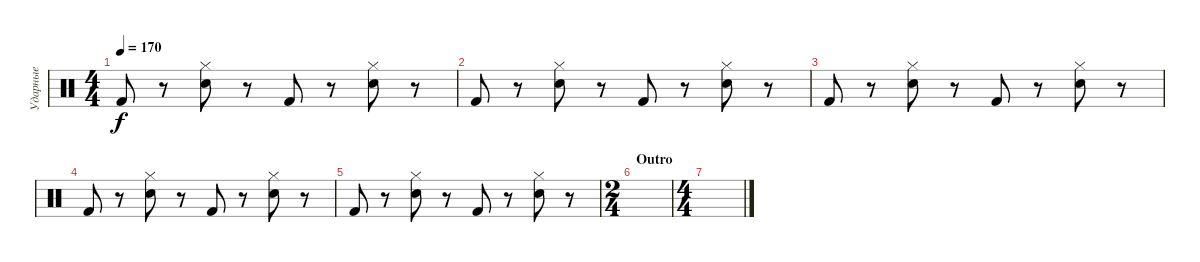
\track ("Ударные" "Ударные") {instrument percussion}
\staff {score}
\articulation defaults
\ts (4 4)
\tempo 170
\clef neutral
\ks c "Kick (hit) 2".8{dy f}
r.8 ("Hi-Hat (closed)" "Electric Snare (hit)").8 r.8 "Kick (hit) 2".8 r.8 ("Hi-Hat (closed)" "Electric Snare (hit)").8 r.8 |
"Kick (hit) 2".8 r.8 ("Hi-Hat (closed)" "Electric Snare (hit)").8 r.8 "Kick (hit) 2".8 r.8 ("Hi-Hat (closed)" "Electric Snare (hit)").8 r.8 |
"Kick (hit) 2".8 r.8 ("Hi-Hat (closed)" "Electric Snare (hit)").8 r.8 "Kick (hit) 2".8 r.8 ("Hi-Hat (closed)" "Electric Snare (hit)").8 r.8 |
"Kick (hit) 2".8 r.8 ("Hi-Hat (closed)" "Electric Snare (hit)").8 r.8 "Kick (hit) 2".8 r.8 ("Hi-Hat (closed)" "Electric Snare (hit)").8 r.8 |
"Kick (hit) 2".8 r.8 ("Hi-Hat (closed)" "Electric Snare (hit)").8 r.8 "Kick (hit) 2".8 r.8 ("Hi-Hat (closed)" "Electric Snare (hit)").8 r.8 |
\ts (2 4)
\section ("" "Outro")
|
\ts (4 4)
